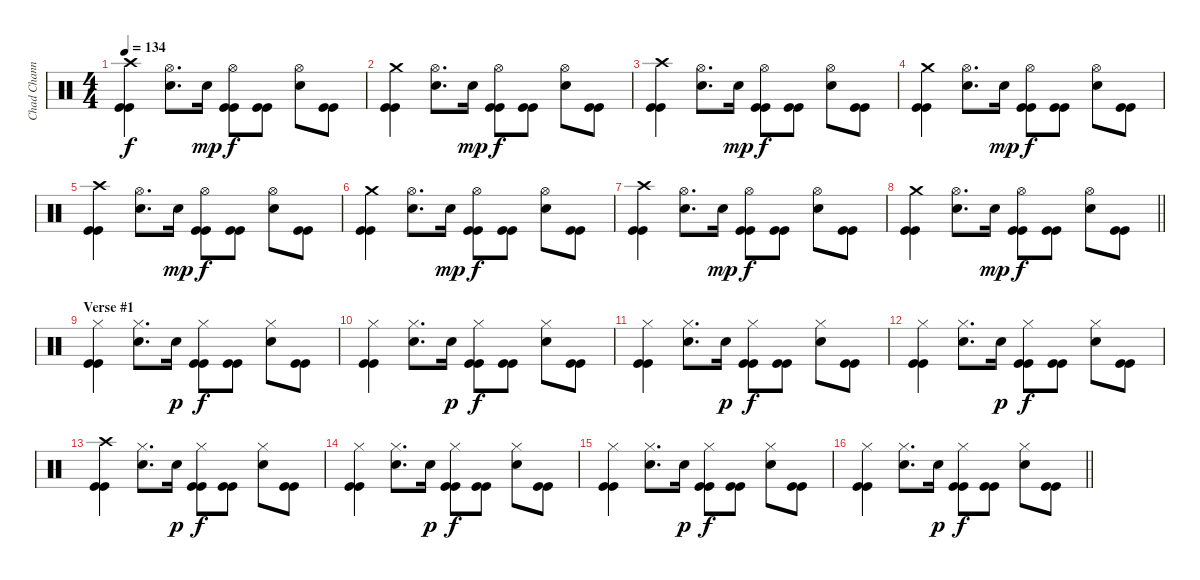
\track ("Chad Channing" "Chad Chann") {instrument percussion}
\staff {score}
\articulation defaults
\ts (4 4)
\tempo 134
\clef neutral
\ks c
("Crash high (hit)" "Kick (hit)" "Kick (hit)").4{dy f} ("Hi-Hat (open)" "Electric Snare (hit)").8{d} "Electric Snare (hit)".16{dy mp} ("Hi-Hat (open)" "Kick (hit)" "Kick (hit)").8{dy f} ("Kick (hit)" "Kick (hit)").8 ("Hi-Hat (open)" "Electric Snare (hit)").8 ("Kick (hit)" "Kick (hit)").8 |
("Crash medium (hit)" "Kick (hit)" "Kick (hit)").4 ("Hi-Hat (open)" "Electric Snare (hit)").8{d} "Electric Snare (hit)".16{dy mp} ("Hi-Hat (open)" "Kick (hit)" "Kick (hit)").8{dy f} ("Kick (hit)" "Kick (hit)").8 ("Hi-Hat (open)" "Electric Snare (hit)").8 ("Kick (hit)" "Kick (hit)").8 |
("Crash high (hit)" "Kick (hit)" "Kick (hit)").4 ("Hi-Hat (open)" "Electric Snare (hit)").8{d} "Electric Snare (hit)".16{dy mp} ("Hi-Hat (open)" "Kick (hit)" "Kick (hit)").8{dy f} ("Kick (hit)" "Kick (hit)").8 ("Hi-Hat (open)" "Electric Snare (hit)").8 ("Kick (hit)" "Kick (hit)").8 |
("Crash medium (hit)" "Kick (hit)" "Kick (hit)").4 ("Hi-Hat (open)" "Electric Snare (hit)").8{d} "Electric Snare (hit)".16{dy mp} ("Hi-Hat (open)" "Kick (hit)" "Kick (hit)").8{dy f} ("Kick (hit)" "Kick (hit)").8 ("Hi-Hat (open)" "Electric Snare (hit)").8 ("Kick (hit)" "Kick (hit)").8 |
("Crash high (hit)" "Kick (hit)" "Kick (hit)").4 ("Hi-Hat (open)" "Electric Snare (hit)").8{d} "Electric Snare (hit)".16{dy mp} ("Hi-Hat (open)" "Kick (hit)" "Kick (hit)").8{dy f} ("Kick (hit)" "Kick (hit)").8 ("Hi-Hat (open)" "Electric Snare (hit)").8 ("Kick (hit)" "Kick (hit)").8 |
("Crash medium (hit)" "Kick (hit)" "Kick (hit)").4 ("Hi-Hat (open)" "Electric Snare (hit)").8{d} "Electric Snare (hit)".16{dy mp} ("Hi-Hat (open)" "Kick (hit)" "Kick (hit)").8{dy f} ("Kick (hit)" "Kick (hit)").8 ("Hi-Hat (open)" "Electric Snare (hit)").8 ("Kick (hit)" "Kick (hit)").8 |
("Crash high (hit)" "Kick (hit)" "Kick (hit)").4 ("Hi-Hat (open)" "Electric Snare (hit)").8{d} "Electric Snare (hit)".16{dy mp} ("Hi-Hat (open)" "Kick (hit)" "Kick (hit)").8{dy f} ("Kick (hit)" "Kick (hit)").8 ("Hi-Hat (open)" "Electric Snare (hit)").8 ("Kick (hit)" "Kick (hit)").8 |
\barLineRight lightlight
("Crash medium (hit)" "Kick (hit)" "Kick (hit)").4 ("Hi-Hat (open)" "Electric Snare (hit)").8{d} "Electric Snare (hit)".16{dy mp} ("Hi-Hat (open)" "Kick (hit)" "Kick (hit)").8{dy f} ("Kick (hit)" "Kick (hit)").8 ("Hi-Hat (open)" "Electric Snare (hit)").8 ("Kick (hit)" "Kick (hit)").8 |
\section ("" "Verse #1")
("Hi-Hat (closed)" "Kick (hit)" "Kick (hit)").4 ("Hi-Hat (closed)" "Electric Snare (hit)").8{d} "Electric Snare (hit)".16{dy p} ("Hi-Hat (closed)" "Kick (hit)" "Kick (hit)").8{dy f} ("Kick (hit)" "Kick (hit)").8 ("Hi-Hat (closed)" "Electric Snare (hit)").8 ("Kick (hit)" "Kick (hit)").8 |
("Hi-Hat (closed)" "Kick (hit)" "Kick (hit)").4 ("Hi-Hat (closed)" "Electric Snare (hit)").8{d} "Electric Snare (hit)".16{dy p} ("Hi-Hat (closed)" "Kick (hit)" "Kick (hit)").8{dy f} ("Kick (hit)" "Kick (hit)").8 ("Hi-Hat (closed)" "Electric Snare (hit)").8 ("Kick (hit)" "Kick (hit)").8 |
("Hi-Hat (closed)" "Kick (hit)" "Kick (hit)").4 ("Hi-Hat (closed)" "Electric Snare (hit)").8{d} "Electric Snare (hit)".16{dy p} ("Hi-Hat (closed)" "Kick (hit)" "Kick (hit)").8{dy f} ("Kick (hit)" "Kick (hit)").8 ("Hi-Hat (closed)" "Electric Snare (hit)").8 ("Kick (hit)" "Kick (hit)").8 |
("Hi-Hat (closed)" "Kick (hit)" "Kick (hit)").4 ("Hi-Hat (closed)" "Electric Snare (hit)").8{d} "Electric Snare (hit)".16{dy p} ("Hi-Hat (closed)" "Kick (hit)" "Kick (hit)").8{dy f} ("Kick (hit)" "Kick (hit)").8 ("Hi-Hat (closed)" "Electric Snare (hit)").8 ("Kick (hit)" "Kick (hit)").8 |
("Crash high (hit)" "Kick (hit)" "Kick (hit)").4 ("Hi-Hat (closed)" "Electric Snare (hit)").8{d} "Electric Snare (hit)".16{dy p} ("Hi-Hat (closed)" "Kick (hit)" "Kick (hit)").8{dy f} ("Kick (hit)" "Kick (hit)").8 ("Hi-Hat (closed)" "Electric Snare (hit)").8 ("Kick (hit)" "Kick (hit)").8 |
("Hi-Hat (closed)" "Kick (hit)" "Kick (hit)").4 ("Hi-Hat (closed)" "Electric Snare (hit)").8{d} "Electric Snare (hit)".16{dy p} ("Hi-Hat (closed)" "Kick (hit)" "Kick (hit)").8{dy f} ("Kick (hit)" "Kick (hit)").8 ("Hi-Hat (closed)" "Electric Snare (hit)").8 ("Kick (hit)" "Kick (hit)").8 |
("Hi-Hat (closed)" "Kick (hit)" "Kick (hit)").4 ("Hi-Hat (closed)" "Electric Snare (hit)").8{d} "Electric Snare (hit)".16{dy p} ("Hi-Hat (closed)" "Kick (hit)" "Kick (hit)").8{dy f} ("Kick (hit)" "Kick (hit)").8 ("Hi-Hat (closed)" "Electric Snare (hit)").8 ("Kick (hit)" "Kick (hit)").8 |
\barLineRight lightlight
("Hi-Hat (closed)" "Kick (hit)" "Kick (hit)").4 ("Hi-Hat (closed)" "Electric Snare (hit)").8{d} "Electric Snare (hit)".16{dy p} ("Hi-Hat (closed)" "Kick (hit)" "Kick (hit)").8{dy f} ("Kick (hit)" "Kick (hit)").8 ("Hi-Hat (closed)" "Electric Snare (hit)").8 ("Kick (hit)" "Kick (hit)").8
